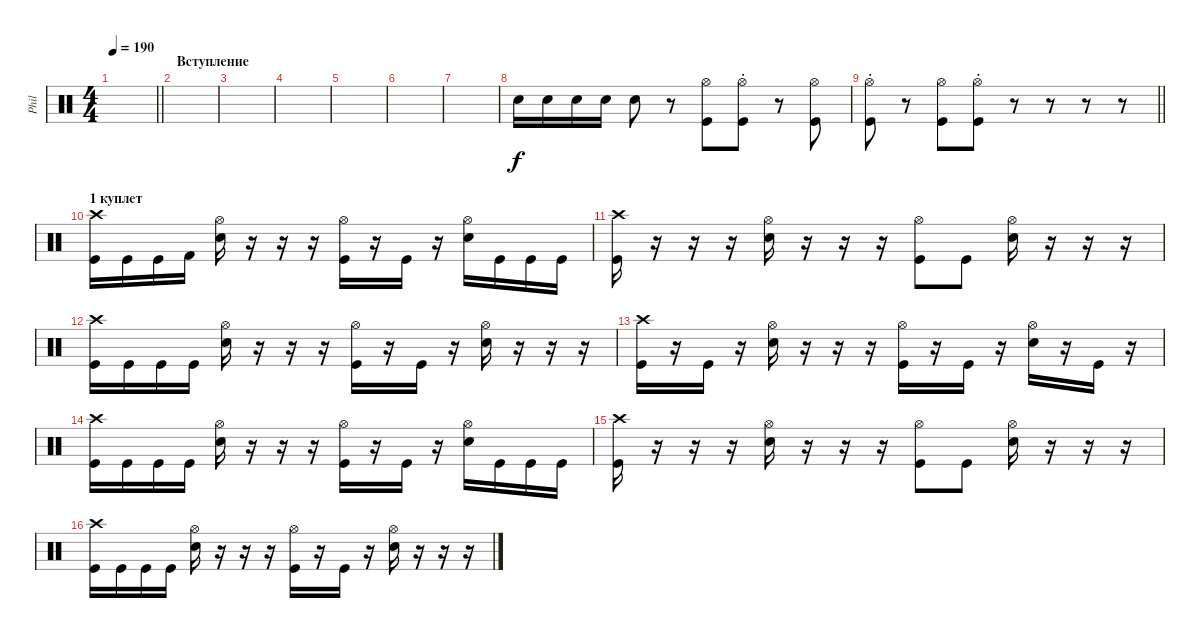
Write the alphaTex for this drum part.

\track ("Phil" "Phil") {instrument percussion}
\staff {score}
\articulation defaults
\ts (4 4)
\tempo 190
\clef neutral
\barLineRight lightlight
\ks c
|
\section ("" "Вступление")
|
|
|
|
|
|
"Electric Snare (hit)".16 "Electric Snare (hit)".16 "Electric Snare (hit)".16 "Electric Snare (hit)".16 "Electric Snare (hit)".8 r.8 ("Hi-Hat (open)" "Kick (hit)").8 ("Hi-Hat (open)"{st} "Kick (hit)").8 r.8 ("Hi-Hat (open)" "Kick (hit)").8 |
\barLineRight lightlight
("Hi-Hat (open)"{st} "Kick (hit)").8 r.8 ("Hi-Hat (open)" "Kick (hit)").8 ("Hi-Hat (open)"{st} "Kick (hit)").8 r.8 r.8 r.8 r.8 |
\section ("" "1 куплет")
("Crash high (hit)" "Kick (hit)").16 "Kick (hit)".16 "Kick (hit)".16 "Kick (hit) 2".16 ("Hi-Hat (open)" "Electric Snare (hit)").16 r.16 r.16 r.16 ("Hi-Hat (open)" "Kick (hit)").16 r.16 "Kick (hit)".16 r.16 ("Hi-Hat (open)" "Electric Snare (hit)").16 "Kick (hit)".16 "Kick (hit)".16 "Kick (hit)".16 |
("Crash high (hit)" "Kick (hit)").16 r.16 r.16 r.16 ("Hi-Hat (open)" "Electric Snare (hit)").16 r.16 r.16 r.16 ("Hi-Hat (open)" "Kick (hit)").8 "Kick (hit)".8 ("Hi-Hat (open)" "Electric Snare (hit)").16 r.16 r.16 r.16 |
("Crash high (hit)" "Kick (hit)").16 "Kick (hit)".16 "Kick (hit)".16 "Kick (hit)".16 ("Hi-Hat (open)" "Electric Snare (hit)").16 r.16 r.16 r.16 ("Hi-Hat (open)" "Kick (hit)").16 r.16 "Kick (hit)".16 r.16 ("Hi-Hat (open)" "Electric Snare (hit)").16 r.16 r.16 r.16 |
("Crash high (hit)" "Kick (hit)").16 r.16 "Kick (hit)".16 r.16 ("Hi-Hat (open)" "Electric Snare (hit)").16 r.16 r.16 r.16 ("Hi-Hat (open)" "Kick (hit)").16 r.16 "Kick (hit)".16 r.16 ("Hi-Hat (open)" "Electric Snare (hit)").16 r.16 "Kick (hit)".16 r.16 |
("Crash high (hit)" "Kick (hit)").16 "Kick (hit)".16 "Kick (hit)".16 "Kick (hit)".16 ("Hi-Hat (open)" "Electric Snare (hit)").16 r.16 r.16 r.16 ("Hi-Hat (open)" "Kick (hit)").16 r.16 "Kick (hit)".16 r.16 ("Hi-Hat (open)" "Electric Snare (hit)").16 "Kick (hit)".16 "Kick (hit)".16 "Kick (hit)".16 |
("Crash high (hit)" "Kick (hit)").16 r.16 r.16 r.16 ("Hi-Hat (open)" "Electric Snare (hit)").16 r.16 r.16 r.16 ("Hi-Hat (open)" "Kick (hit)").8 "Kick (hit)".8 ("Hi-Hat (open)" "Electric Snare (hit)").16 r.16 r.16 r.16 |
("Crash high (hit)" "Kick (hit)").16 "Kick (hit)".16 "Kick (hit)".16 "Kick (hit)".16 ("Hi-Hat (open)" "Electric Snare (hit)").16 r.16 r.16 r.16 ("Hi-Hat (open)" "Kick (hit)").16 r.16 "Kick (hit)".16 r.16 ("Hi-Hat (open)" "Electric Snare (hit)").16 r.16 r.16 r.16
